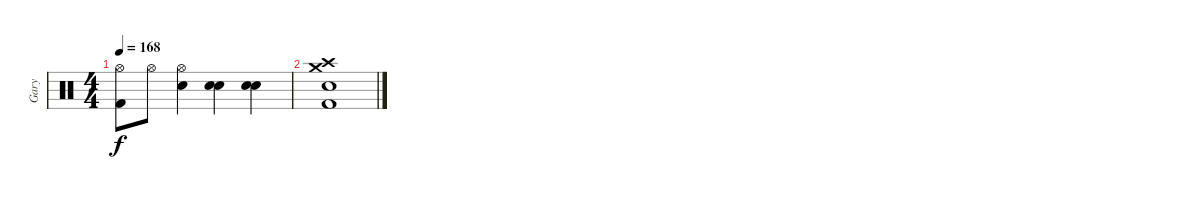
\track ("Gary" "Gary") {instrument percussion}
\staff {score}
\articulation defaults
\ts (4 4)
\tempo 168
\clef neutral
\ks c
("Hi-Hat (open)" "Kick (hit) 2").8{dy f} "Hi-Hat (open)".8 ("Hi-Hat (open)" "Electric Snare (hit)").4 ("Electric Snare (hit)" "Electric Snare (hit)").4{bd 120} ("Electric Snare (hit)" "Electric Snare (hit)").4{bd 120} |
("Crash high (hit)" "Crash medium (hit)" "Electric Snare (hit)" "Kick (hit) 2").1
